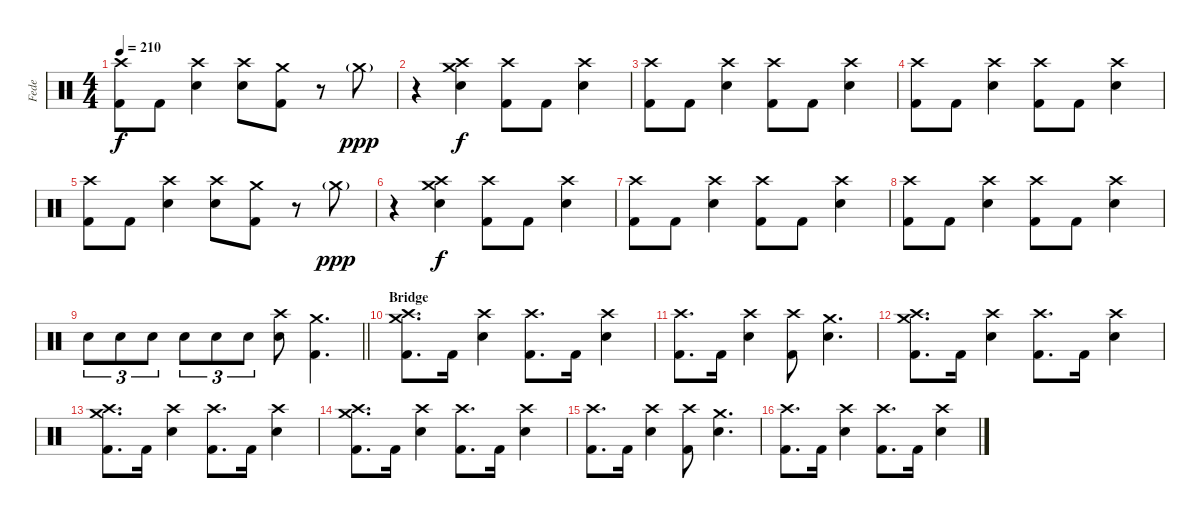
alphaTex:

\track ("Fede" "Fede") {instrument percussion}
\staff {score}
\articulation defaults
\ts (4 4)
\tempo 210
\clef neutral
\ks c
("Crash high (hit)" "Kick (hit) 2").8{dy f} "Kick (hit) 2".8 ("Crash high (hit)" "Snare (hit) 2").4 ("Crash high (hit)" "Snare (hit) 2").8 ("Crash medium (hit)" "Kick (hit) 2").8 r.8 "Crash medium (hit)"{g}.8{dy ppp} |
r.4 ("Crash high (hit)" "Crash medium (hit)" "Snare (hit) 2").4{dy f} ("Crash high (hit)" "Kick (hit) 2").8 "Kick (hit) 2".8 ("Crash high (hit)" "Snare (hit) 2").4 |
("Crash high (hit)" "Kick (hit) 2").8 "Kick (hit) 2".8 ("Crash high (hit)" "Snare (hit) 2").4 ("Crash high (hit)" "Kick (hit) 2").8 "Kick (hit) 2".8 ("Crash high (hit)" "Snare (hit) 2").4 |
("Crash high (hit)" "Kick (hit) 2").8 "Kick (hit) 2".8 ("Crash high (hit)" "Snare (hit) 2").4 ("Crash high (hit)" "Kick (hit) 2").8 "Kick (hit) 2".8 ("Crash high (hit)" "Snare (hit) 2").4 |
("Crash high (hit)" "Kick (hit) 2").8 "Kick (hit) 2".8 ("Crash high (hit)" "Snare (hit) 2").4 ("Crash high (hit)" "Snare (hit) 2").8 ("Crash medium (hit)" "Kick (hit) 2").8 r.8 "Crash medium (hit)"{g}.8{dy ppp} |
r.4 ("Crash high (hit)" "Crash medium (hit)" "Snare (hit) 2").4{dy f} ("Crash high (hit)" "Kick (hit) 2").8 "Kick (hit) 2".8 ("Crash high (hit)" "Snare (hit) 2").4 |
("Crash high (hit)" "Kick (hit) 2").8 "Kick (hit) 2".8 ("Crash high (hit)" "Snare (hit) 2").4 ("Crash high (hit)" "Kick (hit) 2").8 "Kick (hit) 2".8 ("Crash high (hit)" "Snare (hit) 2").4 |
("Crash high (hit)" "Kick (hit) 2").8 "Kick (hit) 2".8 ("Crash high (hit)" "Snare (hit) 2").4 ("Crash high (hit)" "Kick (hit) 2").8 "Kick (hit) 2".8 ("Crash high (hit)" "Snare (hit) 2").4 |
\barLineRight lightlight "Snare (hit) 2".8{tu (3 2)} "Snare (hit) 2".8{tu (3 2)} "Snare (hit) 2".8{tu (3 2)} "Snare (hit) 2".8{tu (3 2)} "Snare (hit) 2".8{tu (3 2)} "Snare (hit) 2".8{tu (3 2)}
("Crash high (hit)" "Snare (hit) 2").8 ("Crash medium (hit)" "Kick (hit) 2").4{d} |
\section ("" "Bridge")
("Crash high (hit)" "Crash medium (hit)" "Kick (hit) 2").8{d} "Kick (hit) 2".16 ("Crash high (hit)" "Snare (hit) 2").4 ("Crash high (hit)" "Kick (hit) 2").8{d} "Kick (hit) 2".16 ("Crash high (hit)" "Snare (hit) 2").4 |
("Crash high (hit)" "Kick (hit) 2").8{d} "Kick (hit) 2".16 ("Crash high (hit)" "Snare (hit) 2").4 ("Crash high (hit)" "Kick (hit) 2").8 ("Crash medium (hit)" "Snare (hit) 2").4{d} |
("Crash high (hit)" "Crash medium (hit)" "Kick (hit) 2").8{d} "Kick (hit) 2".16 ("Crash high (hit)" "Snare (hit) 2").4 ("Crash high (hit)" "Kick (hit) 2").8{d} "Kick (hit) 2".16 ("Crash high (hit)" "Snare (hit) 2").4 |
("Crash high (hit)" "Crash medium (hit)" "Kick (hit) 2").8{d} "Kick (hit) 2".16 ("Crash high (hit)" "Snare (hit) 2").4 ("Crash high (hit)" "Kick (hit) 2").8{d} "Kick (hit) 2".16 ("Crash high (hit)" "Snare (hit) 2").4 |
("Crash high (hit)" "Crash medium (hit)" "Kick (hit) 2").8{d} "Kick (hit) 2".16 ("Crash high (hit)" "Snare (hit) 2").4 ("Crash high (hit)" "Kick (hit) 2").8{d} "Kick (hit) 2".16 ("Crash high (hit)" "Snare (hit) 2").4 |
("Crash high (hit)" "Kick (hit) 2").8{d} "Kick (hit) 2".16 ("Crash high (hit)" "Snare (hit) 2").4 ("Crash high (hit)" "Kick (hit) 2").8 ("Crash medium (hit)" "Snare (hit) 2").4{d} |
("Crash high (hit)" "Kick (hit) 2").8{d} "Kick (hit) 2".16 ("Crash high (hit)" "Snare (hit) 2").4 ("Crash high (hit)" "Kick (hit) 2").8{d} "Kick (hit) 2".16 ("Crash high (hit)" "Snare (hit) 2").4
